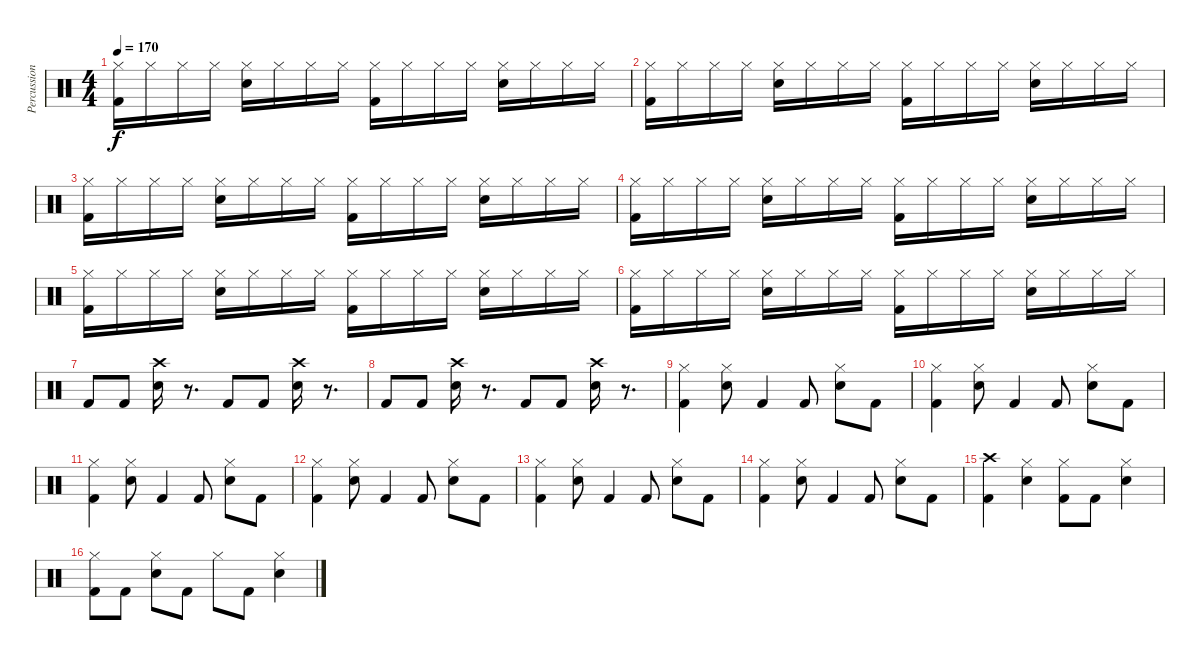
\track ("Percussions" "Percussion") {instrument percussion}
\staff {score}
\articulation defaults
\ts (4 4)
\tempo 170
\clef neutral
\ks c
("Hi-Hat (closed)" "Kick (hit) 2").16{dy f} "Hi-Hat (closed)".16 "Hi-Hat (closed)".16 "Hi-Hat (closed)".16 ("Hi-Hat (closed)" "Snare (hit) 2").16 "Hi-Hat (closed)".16 "Hi-Hat (closed)".16 "Hi-Hat (closed)".16 ("Hi-Hat (closed)" "Kick (hit) 2").16 "Hi-Hat (closed)".16 "Hi-Hat (closed)".16 "Hi-Hat (closed)".16 ("Hi-Hat (closed)" "Snare (hit) 2").16 "Hi-Hat (closed)".16 "Hi-Hat (closed)".16 "Hi-Hat (closed)".16 |
("Hi-Hat (closed)" "Kick (hit) 2").16 "Hi-Hat (closed)".16 "Hi-Hat (closed)".16 "Hi-Hat (closed)".16 ("Hi-Hat (closed)" "Snare (hit) 2").16 "Hi-Hat (closed)".16 "Hi-Hat (closed)".16 "Hi-Hat (closed)".16 ("Hi-Hat (closed)" "Kick (hit) 2").16 "Hi-Hat (closed)".16 "Hi-Hat (closed)".16 "Hi-Hat (closed)".16 ("Hi-Hat (closed)" "Snare (hit) 2").16 "Hi-Hat (closed)".16 "Hi-Hat (closed)".16 "Hi-Hat (closed)".16 |
("Hi-Hat (closed)" "Kick (hit) 2").16 "Hi-Hat (closed)".16 "Hi-Hat (closed)".16 "Hi-Hat (closed)".16 ("Hi-Hat (closed)" "Snare (hit) 2").16 "Hi-Hat (closed)".16 "Hi-Hat (closed)".16 "Hi-Hat (closed)".16 ("Hi-Hat (closed)" "Kick (hit) 2").16 "Hi-Hat (closed)".16 "Hi-Hat (closed)".16 "Hi-Hat (closed)".16 ("Hi-Hat (closed)" "Snare (hit) 2").16 "Hi-Hat (closed)".16 "Hi-Hat (closed)".16 "Hi-Hat (closed)".16 |
("Hi-Hat (closed)" "Kick (hit) 2").16 "Hi-Hat (closed)".16 "Hi-Hat (closed)".16 "Hi-Hat (closed)".16 ("Hi-Hat (closed)" "Snare (hit) 2").16 "Hi-Hat (closed)".16 "Hi-Hat (closed)".16 "Hi-Hat (closed)".16 ("Hi-Hat (closed)" "Kick (hit) 2").16 "Hi-Hat (closed)".16 "Hi-Hat (closed)".16 "Hi-Hat (closed)".16 ("Hi-Hat (closed)" "Snare (hit) 2").16 "Hi-Hat (closed)".16 "Hi-Hat (closed)".16 "Hi-Hat (closed)".16 |
("Hi-Hat (closed)" "Kick (hit) 2").16 "Hi-Hat (closed)".16 "Hi-Hat (closed)".16 "Hi-Hat (closed)".16 ("Hi-Hat (closed)" "Snare (hit) 2").16 "Hi-Hat (closed)".16 "Hi-Hat (closed)".16 "Hi-Hat (closed)".16 ("Hi-Hat (closed)" "Kick (hit) 2").16 "Hi-Hat (closed)".16 "Hi-Hat (closed)".16 "Hi-Hat (closed)".16 ("Hi-Hat (closed)" "Snare (hit) 2").16 "Hi-Hat (closed)".16 "Hi-Hat (closed)".16 "Hi-Hat (closed)".16 |
("Hi-Hat (closed)" "Kick (hit) 2").16 "Hi-Hat (closed)".16 "Hi-Hat (closed)".16 "Hi-Hat (closed)".16 ("Hi-Hat (closed)" "Snare (hit) 2").16 "Hi-Hat (closed)".16 "Hi-Hat (closed)".16 "Hi-Hat (closed)".16 ("Hi-Hat (closed)" "Kick (hit) 2").16 "Hi-Hat (closed)".16 "Hi-Hat (closed)".16 "Hi-Hat (closed)".16 ("Hi-Hat (closed)" "Snare (hit) 2").16 "Hi-Hat (closed)".16 "Hi-Hat (closed)".16 "Hi-Hat (closed)".16 |
"Kick (hit) 2".8 "Kick (hit) 2".8 ("Snare (hit) 2" "Crash high (hit)").16 r.8{d} "Kick (hit) 2".8 "Kick (hit) 2".8 ("Snare (hit) 2" "Crash high (hit)").16 r.8{d} |
"Kick (hit) 2".8 "Kick (hit) 2".8 ("Snare (hit) 2" "Crash high (hit)").16 r.8{d} "Kick (hit) 2".8 "Kick (hit) 2".8 ("Snare (hit) 2" "Crash high (hit)").16 r.8{d} |
("Hi-Hat (closed)" "Kick (hit) 2").4 ("Snare (hit) 2" "Hi-Hat (closed)").8 "Kick (hit) 2".4 "Kick (hit) 2".8 ("Snare (hit) 2" "Hi-Hat (closed)").8 "Kick (hit) 2".8 |
("Hi-Hat (closed)" "Kick (hit) 2").4 ("Snare (hit) 2" "Hi-Hat (closed)").8 "Kick (hit) 2".4 "Kick (hit) 2".8 ("Snare (hit) 2" "Hi-Hat (closed)").8 "Kick (hit) 2".8 |
("Hi-Hat (closed)" "Kick (hit) 2").4 ("Snare (hit) 2" "Hi-Hat (closed)").8 "Kick (hit) 2".4 "Kick (hit) 2".8 ("Snare (hit) 2" "Hi-Hat (closed)").8 "Kick (hit) 2".8 |
("Hi-Hat (closed)" "Kick (hit) 2").4 ("Snare (hit) 2" "Hi-Hat (closed)").8 "Kick (hit) 2".4 "Kick (hit) 2".8 ("Snare (hit) 2" "Hi-Hat (closed)").8 "Kick (hit) 2".8 |
("Hi-Hat (closed)" "Kick (hit) 2").4 ("Snare (hit) 2" "Hi-Hat (closed)").8 "Kick (hit) 2".4 "Kick (hit) 2".8 ("Snare (hit) 2" "Hi-Hat (closed)").8 "Kick (hit) 2".8 |
("Hi-Hat (closed)" "Kick (hit) 2").4 ("Snare (hit) 2" "Hi-Hat (closed)").8 "Kick (hit) 2".4 "Kick (hit) 2".8 ("Snare (hit) 2" "Hi-Hat (closed)").8 "Kick (hit) 2".8 |
("Crash high (hit)" "Kick (hit) 2").4 ("Snare (hit) 2" "Hi-Hat (closed)").4 ("Kick (hit) 2" "Hi-Hat (closed)").8 "Kick (hit) 2".8 ("Snare (hit) 2" "Hi-Hat (closed)").4 |
("Kick (hit) 2" "Hi-Hat (closed)").8 "Kick (hit) 2".8 ("Snare (hit) 2" "Hi-Hat (closed)").8 "Kick (hit) 2".8 "Hi-Hat (closed)".8 "Kick (hit) 2".8 ("Snare (hit) 2" "Hi-Hat (closed)").4
